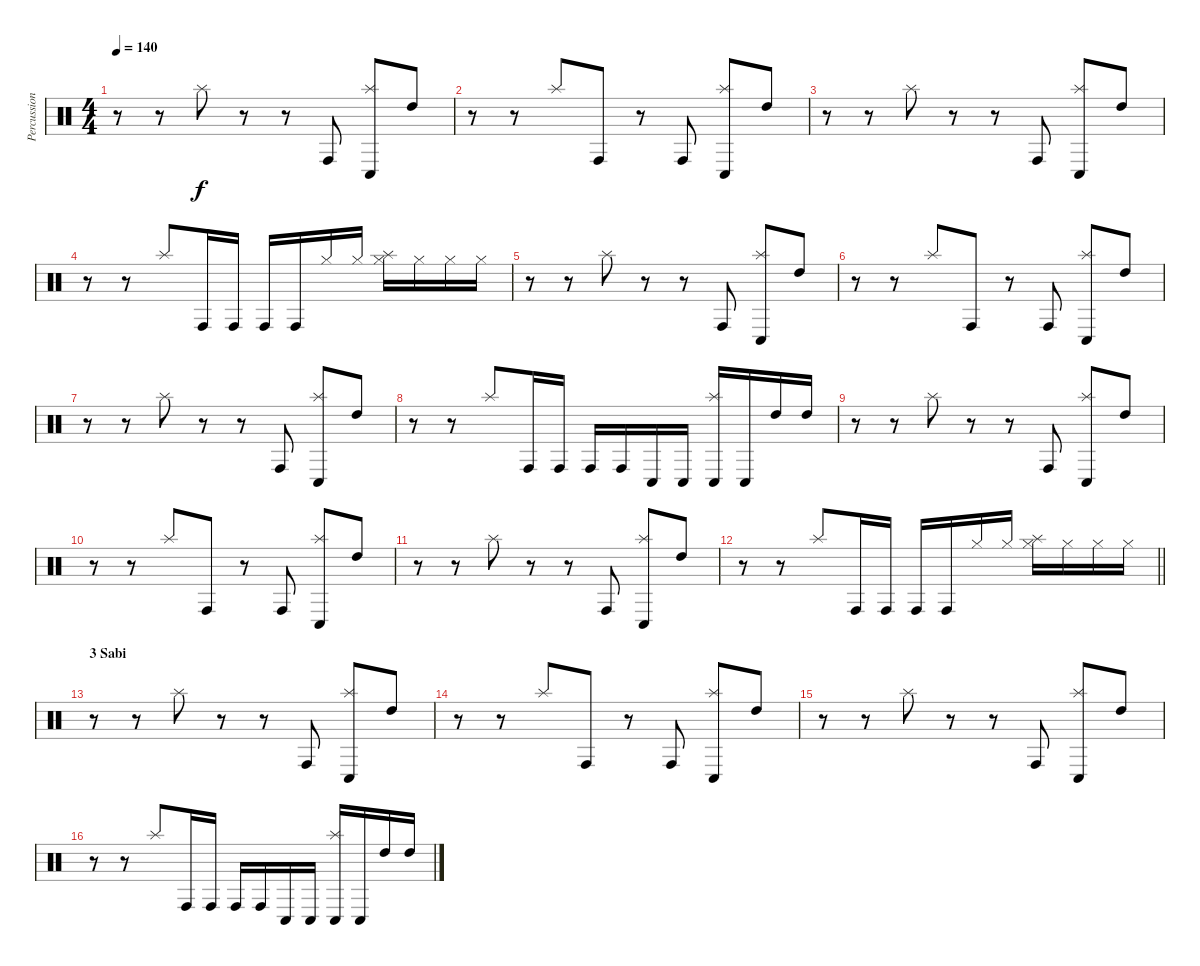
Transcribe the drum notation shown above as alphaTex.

\track ("Percussion" "Percussion") {instrument percussion}
\staff {score}
\articulation defaults
\ts (4 4)
\tempo 140
\clef neutral
\ks c
r.8{dy f} r.8 "Splash (hit)".8 r.8 r.8 "Conga high (hit)".8 ("Conga low (hit)" "Splash (hit)").8 "High Tom (hit)".8 |
r.8 r.8 "Splash (hit)".8 "Conga high (hit)".8 r.8 "Conga high (hit)".8 ("Conga low (hit)" "Splash (hit)").8 "High Tom (hit)".8 |
r.8 r.8 "Splash (hit)".8 r.8 r.8 "Conga high (hit)".8 ("Conga low (hit)" "Splash (hit)").8 "High Tom (hit)".8 |
r.8 r.8 "Splash (hit)".8 "Conga high (hit)".16 "Conga high (hit)".16 "Conga high (hit)".16 "Conga high (hit)".16 "Hi-Hat (closed)".16 "Hi-Hat (closed)".16 ("Hi-Hat (closed)" "Splash (hit)").16 "Hi-Hat (closed)".16 "Hi-Hat (closed)".16 "Hi-Hat (closed)".16 |
r.8 r.8 "Splash (hit)".8 r.8 r.8 "Conga high (hit)".8 ("Conga low (hit)" "Splash (hit)").8 "High Tom (hit)".8 |
r.8 r.8 "Splash (hit)".8 "Conga high (hit)".8 r.8 "Conga high (hit)".8 ("Conga low (hit)" "Splash (hit)").8 "High Tom (hit)".8 |
r.8 r.8 "Splash (hit)".8 r.8 r.8 "Conga high (hit)".8 ("Conga low (hit)" "Splash (hit)").8 "High Tom (hit)".8 |
r.8 r.8 "Splash (hit)".8 "Conga high (hit)".16 "Conga high (hit)".16 "Conga high (hit)".16 "Conga high (hit)".16 "Conga low (hit)".16 "Conga low (hit)".16 ("Conga low (hit)" "Splash (hit)").16 "Conga low (hit)".16 "High Tom (hit)".16 "High Tom (hit)".16 |
r.8 r.8 "Splash (hit)".8 r.8 r.8 "Conga high (hit)".8 ("Conga low (hit)" "Splash (hit)").8 "High Tom (hit)".8 |
r.8 r.8 "Splash (hit)".8 "Conga high (hit)".8 r.8 "Conga high (hit)".8 ("Conga low (hit)" "Splash (hit)").8 "High Tom (hit)".8 |
r.8 r.8 "Splash (hit)".8 r.8 r.8 "Conga high (hit)".8 ("Conga low (hit)" "Splash (hit)").8 "High Tom (hit)".8 |
\barLineRight lightlight
r.8 r.8 "Splash (hit)".8 "Conga high (hit)".16 "Conga high (hit)".16 "Conga high (hit)".16 "Conga high (hit)".16 "Hi-Hat (closed)".16 "Hi-Hat (closed)".16 ("Hi-Hat (closed)" "Splash (hit)").16 "Hi-Hat (closed)".16 "Hi-Hat (closed)".16 "Hi-Hat (closed)".16 |
\section ("" "3 Sabi")
r.8 r.8 "Splash (hit)".8 r.8 r.8 "Conga high (hit)".8 ("Conga low (hit)" "Splash (hit)").8 "High Tom (hit)".8 |
r.8 r.8 "Splash (hit)".8 "Conga high (hit)".8 r.8 "Conga high (hit)".8 ("Conga low (hit)" "Splash (hit)").8 "High Tom (hit)".8 |
r.8 r.8 "Splash (hit)".8 r.8 r.8 "Conga high (hit)".8 ("Conga low (hit)" "Splash (hit)").8 "High Tom (hit)".8 |
r.8 r.8 "Splash (hit)".8 "Conga high (hit)".16 "Conga high (hit)".16 "Conga high (hit)".16 "Conga high (hit)".16 "Conga low (hit)".16 "Conga low (hit)".16 ("Conga low (hit)" "Splash (hit)").16 "Conga low (hit)".16 "High Tom (hit)".16 "High Tom (hit)".16
